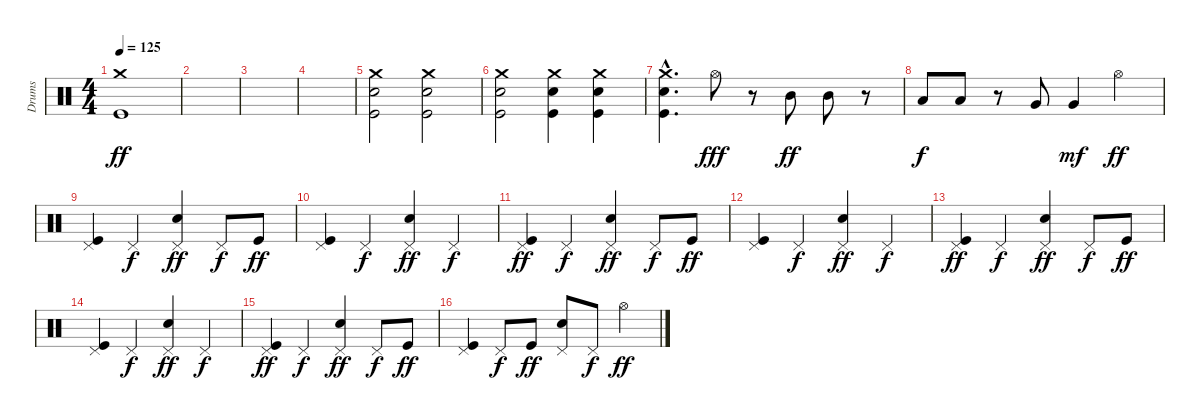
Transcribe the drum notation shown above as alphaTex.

\track ("Drums" "Drums") {instrument percussion}
\staff {score}
\articulation defaults
\ts (4 4)
\tempo 125
\clef neutral
\ks c
("Crash medium (hit)" "Kick (hit)").1{dy ff} |
|
|
|
("Crash medium (hit)" "Electric Snare (hit)" "Kick (hit)").2 ("Crash medium (hit)" "Electric Snare (hit)" "Kick (hit)").2 |
("Crash medium (hit)" "Electric Snare (hit)" "Kick (hit)").2 ("Crash medium (hit)" "Electric Snare (hit)" "Kick (hit)").4 ("Crash medium (hit)" "Electric Snare (hit)" "Kick (hit)").4 |
("Crash medium (hit)"{hac} "Electric Snare (hit)"{hac} "Kick (hit)"{hac}).4{d} "Hi-Hat (open)".8{dy fff} r.8 "Mid Tom (hit)".8{dy ff} "Mid Tom (hit)".8 r.8 |
"Low Tom (hit)".8{dy f} "Low Tom (hit)".8 r.8 "Very Low Tom (hit)".8 "Very Low Tom (hit)".4{dy mf} "Hi-Hat (open)".4{dy ff} |
("Pedal Hi-Hat (hit)" "Kick (hit)").4 "Pedal Hi-Hat (hit)".4{dy f} ("Pedal Hi-Hat (hit)" "Electric Snare (hit)").4{dy ff} "Pedal Hi-Hat (hit)".8{dy f} "Kick (hit)".8{dy ff} |
("Pedal Hi-Hat (hit)" "Kick (hit)").4 "Pedal Hi-Hat (hit)".4{dy f} ("Pedal Hi-Hat (hit)" "Electric Snare (hit)").4{dy ff} "Pedal Hi-Hat (hit)".4{dy f} |
("Pedal Hi-Hat (hit)" "Kick (hit)").4{dy ff} "Pedal Hi-Hat (hit)".4{dy f} ("Pedal Hi-Hat (hit)" "Electric Snare (hit)").4{dy ff} "Pedal Hi-Hat (hit)".8{dy f} "Kick (hit)".8{dy ff} |
("Pedal Hi-Hat (hit)" "Kick (hit)").4 "Pedal Hi-Hat (hit)".4{dy f} ("Pedal Hi-Hat (hit)" "Electric Snare (hit)").4{dy ff} "Pedal Hi-Hat (hit)".4{dy f} |
("Pedal Hi-Hat (hit)" "Kick (hit)").4{dy ff} "Pedal Hi-Hat (hit)".4{dy f} ("Pedal Hi-Hat (hit)" "Electric Snare (hit)").4{dy ff} "Pedal Hi-Hat (hit)".8{dy f} "Kick (hit)".8{dy ff} |
("Pedal Hi-Hat (hit)" "Kick (hit)").4 "Pedal Hi-Hat (hit)".4{dy f} ("Pedal Hi-Hat (hit)" "Electric Snare (hit)").4{dy ff} "Pedal Hi-Hat (hit)".4{dy f} |
("Pedal Hi-Hat (hit)" "Kick (hit)").4{dy ff} "Pedal Hi-Hat (hit)".4{dy f} ("Pedal Hi-Hat (hit)" "Electric Snare (hit)").4{dy ff} "Pedal Hi-Hat (hit)".8{dy f} "Kick (hit)".8{dy ff} |
("Pedal Hi-Hat (hit)" "Kick (hit)").4 "Pedal Hi-Hat (hit)".8{dy f} "Kick (hit)".8{dy ff} ("Pedal Hi-Hat (hit)" "Electric Snare (hit)").8 "Pedal Hi-Hat (hit)".8{dy f} "Hi-Hat (open)".4{dy ff}
